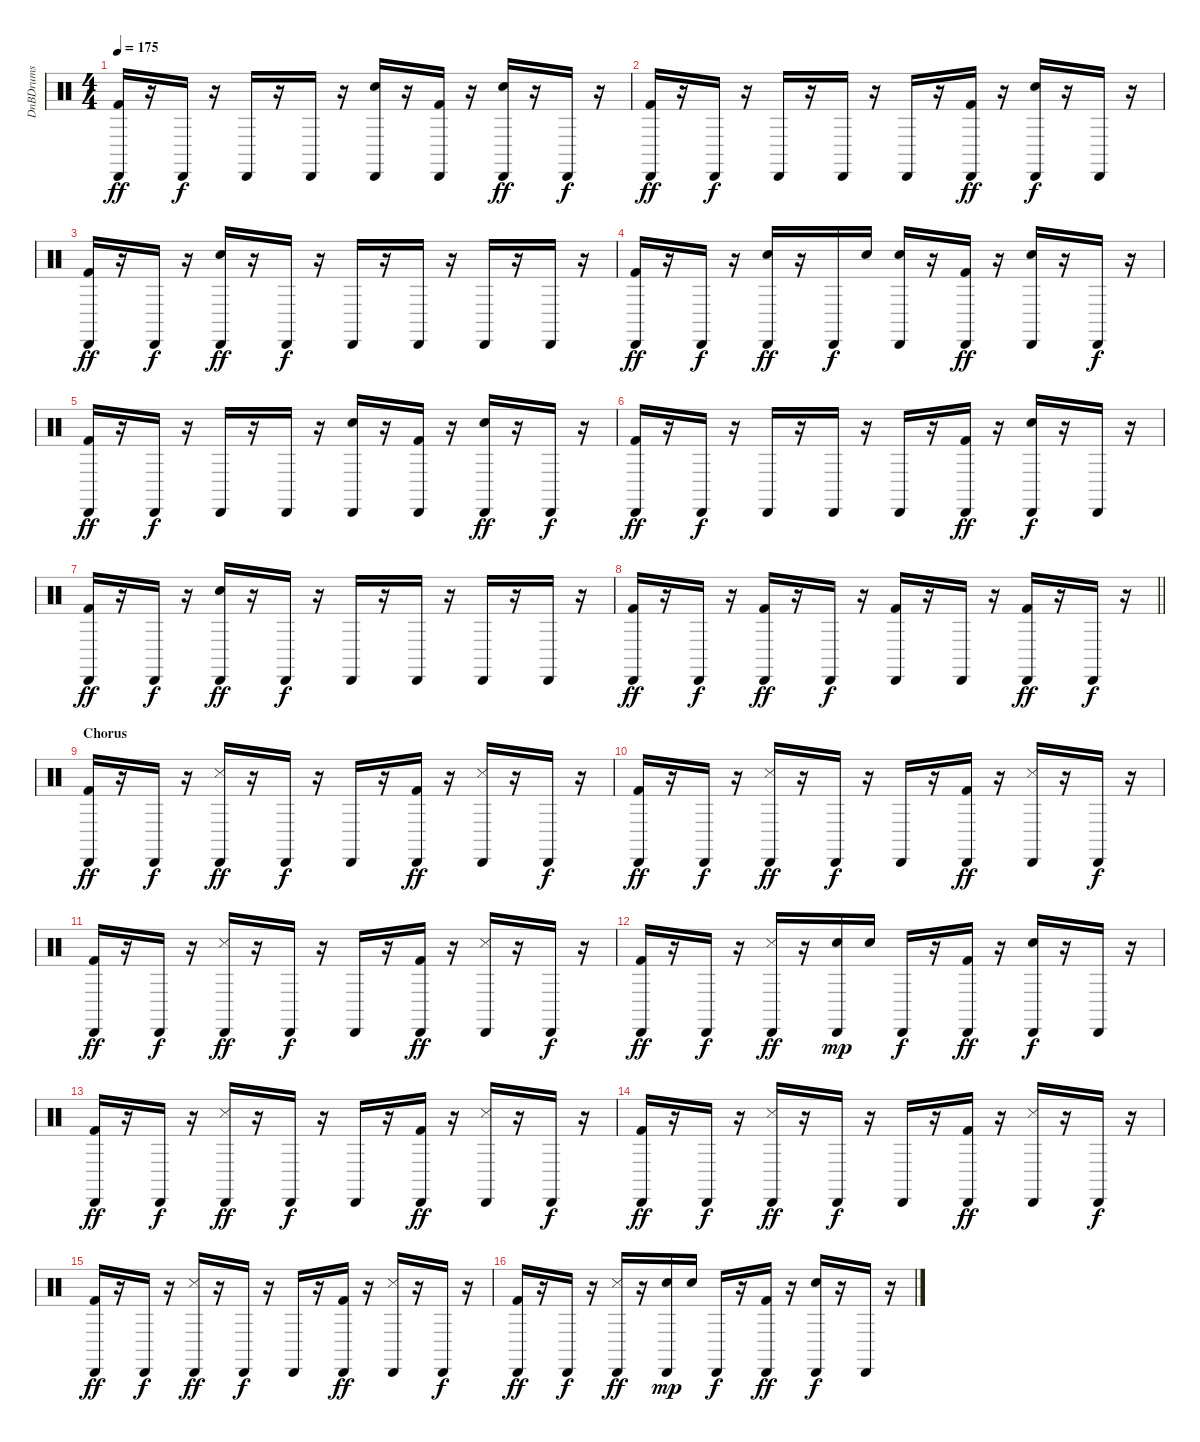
\track ("DnBDrums" "DnBDrums") {instrument percussion}
\staff {score}
\articulation defaults
\ts (4 4)
\tempo 175
\clef neutral
\ks c
("Kick (hit) 2" "Cabasa (hit)").16{dy ff} r.16 "Cabasa (hit)".16{dy f} r.16 "Cabasa (hit)".16 r.16 "Cabasa (hit)".16 r.16 ("Cabasa (hit)" "Electric Snare (hit)").16 r.16 ("Kick (hit) 2" "Cabasa (hit)").16 r.16 ("Electric Snare (hit)" "Cabasa (hit)").16{dy ff} r.16 "Cabasa (hit)".16{dy f} r.16 |
("Kick (hit) 2" "Cabasa (hit)").16{dy ff} r.16 "Cabasa (hit)".16{dy f} r.16 "Cabasa (hit)".16 r.16 "Cabasa (hit)".16 r.16 "Cabasa (hit)".16 r.16 ("Kick (hit) 2" "Cabasa (hit)").16{dy ff} r.16 ("Electric Snare (hit)" "Cabasa (hit)").16{dy f} r.16 "Cabasa (hit)".16 r.16 |
("Kick (hit) 2" "Cabasa (hit)").16{dy ff} r.16 "Cabasa (hit)".16{dy f} r.16 ("Electric Snare (hit)" "Cabasa (hit)").16{dy ff} r.16 "Cabasa (hit)".16{dy f} r.16 "Cabasa (hit)".16 r.16 "Cabasa (hit)".16 r.16 "Cabasa (hit)".16 r.16 "Cabasa (hit)".16 r.16 |
("Kick (hit) 2" "Cabasa (hit)").16{dy ff} r.16 "Cabasa (hit)".16{dy f} r.16 ("Electric Snare (hit)" "Cabasa (hit)").16{dy ff} r.16 "Cabasa (hit)".16{dy f} "Electric Snare (hit)".16 ("Cabasa (hit)" "Electric Snare (hit)").16 r.16 ("Kick (hit) 2" "Cabasa (hit)").16{dy ff} r.16 ("Electric Snare (hit)" "Cabasa (hit)").16 r.16 "Cabasa (hit)".16{dy f} r.16 |
("Kick (hit) 2" "Cabasa (hit)").16{dy ff} r.16 "Cabasa (hit)".16{dy f} r.16 "Cabasa (hit)".16 r.16 "Cabasa (hit)".16 r.16 ("Cabasa (hit)" "Electric Snare (hit)").16 r.16 ("Kick (hit) 2" "Cabasa (hit)").16 r.16 ("Electric Snare (hit)" "Cabasa (hit)").16{dy ff} r.16 "Cabasa (hit)".16{dy f} r.16 |
("Kick (hit) 2" "Cabasa (hit)").16{dy ff} r.16 "Cabasa (hit)".16{dy f} r.16 "Cabasa (hit)".16 r.16 "Cabasa (hit)".16 r.16 "Cabasa (hit)".16 r.16 ("Kick (hit) 2" "Cabasa (hit)").16{dy ff} r.16 ("Electric Snare (hit)" "Cabasa (hit)").16{dy f} r.16 "Cabasa (hit)".16 r.16 |
("Kick (hit) 2" "Cabasa (hit)").16{dy ff} r.16 "Cabasa (hit)".16{dy f} r.16 ("Electric Snare (hit)" "Cabasa (hit)").16{dy ff} r.16 "Cabasa (hit)".16{dy f} r.16 "Cabasa (hit)".16 r.16 "Cabasa (hit)".16 r.16 "Cabasa (hit)".16 r.16 "Cabasa (hit)".16 r.16 |
\barLineRight lightlight
("Kick (hit) 2" "Cabasa (hit)").16{dy ff} r.16 "Cabasa (hit)".16{dy f} r.16 ("Kick (hit) 2" "Cabasa (hit)").16{dy ff} r.16 "Cabasa (hit)".16{dy f} r.16 ("Cabasa (hit)" "Kick (hit) 2").16 r.16 "Cabasa (hit)".16 r.16 ("Kick (hit) 2" "Cabasa (hit)").16{dy ff} r.16 "Cabasa (hit)".16{dy f} r.16 |
\section ("" "Chorus")
("Kick (hit) 2" "Cabasa (hit)").16{dy ff} r.16 "Cabasa (hit)".16{dy f} r.16 ("Snare (side stick) 3" "Cabasa (hit)").16{dy ff} r.16 "Cabasa (hit)".16{dy f} r.16 "Cabasa (hit)".16 r.16 ("Kick (hit) 2" "Cabasa (hit)").16{dy ff} r.16 ("Snare (side stick) 3" "Cabasa (hit)").16 r.16 "Cabasa (hit)".16{dy f} r.16 |
("Kick (hit) 2" "Cabasa (hit)").16{dy ff} r.16 "Cabasa (hit)".16{dy f} r.16 ("Snare (side stick) 3" "Cabasa (hit)").16{dy ff} r.16 "Cabasa (hit)".16{dy f} r.16 "Cabasa (hit)".16 r.16 ("Kick (hit) 2" "Cabasa (hit)").16{dy ff} r.16 ("Snare (side stick) 3" "Cabasa (hit)").16 r.16 "Cabasa (hit)".16{dy f} r.16 |
("Kick (hit) 2" "Cabasa (hit)").16{dy ff} r.16 "Cabasa (hit)".16{dy f} r.16 ("Snare (side stick) 3" "Cabasa (hit)").16{dy ff} r.16 "Cabasa (hit)".16{dy f} r.16 "Cabasa (hit)".16 r.16 ("Kick (hit) 2" "Cabasa (hit)").16{dy ff} r.16 ("Snare (side stick) 3" "Cabasa (hit)").16 r.16 "Cabasa (hit)".16{dy f} r.16 |
("Kick (hit) 2" "Cabasa (hit)").16{dy ff} r.16 "Cabasa (hit)".16{dy f} r.16 ("Snare (side stick) 3" "Cabasa (hit)").16{dy ff} r.16 ("Electric Snare (hit)" "Cabasa (hit)").16{dy mp} "Electric Snare (hit)".16 "Cabasa (hit)".16{dy f} r.16 ("Kick (hit) 2" "Cabasa (hit)").16{dy ff} r.16 ("Electric Snare (hit)" "Cabasa (hit)").16{dy f} r.16 "Cabasa (hit)".16 r.16 |
("Kick (hit) 2" "Cabasa (hit)").16{dy ff} r.16 "Cabasa (hit)".16{dy f} r.16 ("Snare (side stick) 3" "Cabasa (hit)").16{dy ff} r.16 "Cabasa (hit)".16{dy f} r.16 "Cabasa (hit)".16 r.16 ("Kick (hit) 2" "Cabasa (hit)").16{dy ff} r.16 ("Snare (side stick) 3" "Cabasa (hit)").16 r.16 "Cabasa (hit)".16{dy f} r.16 |
("Kick (hit) 2" "Cabasa (hit)").16{dy ff} r.16 "Cabasa (hit)".16{dy f} r.16 ("Snare (side stick) 3" "Cabasa (hit)").16{dy ff} r.16 "Cabasa (hit)".16{dy f} r.16 "Cabasa (hit)".16 r.16 ("Kick (hit) 2" "Cabasa (hit)").16{dy ff} r.16 ("Snare (side stick) 3" "Cabasa (hit)").16 r.16 "Cabasa (hit)".16{dy f} r.16 |
("Kick (hit) 2" "Cabasa (hit)").16{dy ff} r.16 "Cabasa (hit)".16{dy f} r.16 ("Snare (side stick) 3" "Cabasa (hit)").16{dy ff} r.16 "Cabasa (hit)".16{dy f} r.16 "Cabasa (hit)".16 r.16 ("Kick (hit) 2" "Cabasa (hit)").16{dy ff} r.16 ("Snare (side stick) 3" "Cabasa (hit)").16 r.16 "Cabasa (hit)".16{dy f} r.16 |
("Kick (hit) 2" "Cabasa (hit)").16{dy ff} r.16 "Cabasa (hit)".16{dy f} r.16 ("Snare (side stick) 3" "Cabasa (hit)").16{dy ff} r.16 ("Electric Snare (hit)" "Cabasa (hit)").16{dy mp} "Electric Snare (hit)".16 "Cabasa (hit)".16{dy f} r.16 ("Kick (hit) 2" "Cabasa (hit)").16{dy ff} r.16 ("Electric Snare (hit)" "Cabasa (hit)").16{dy f} r.16 "Cabasa (hit)".16 r.16
